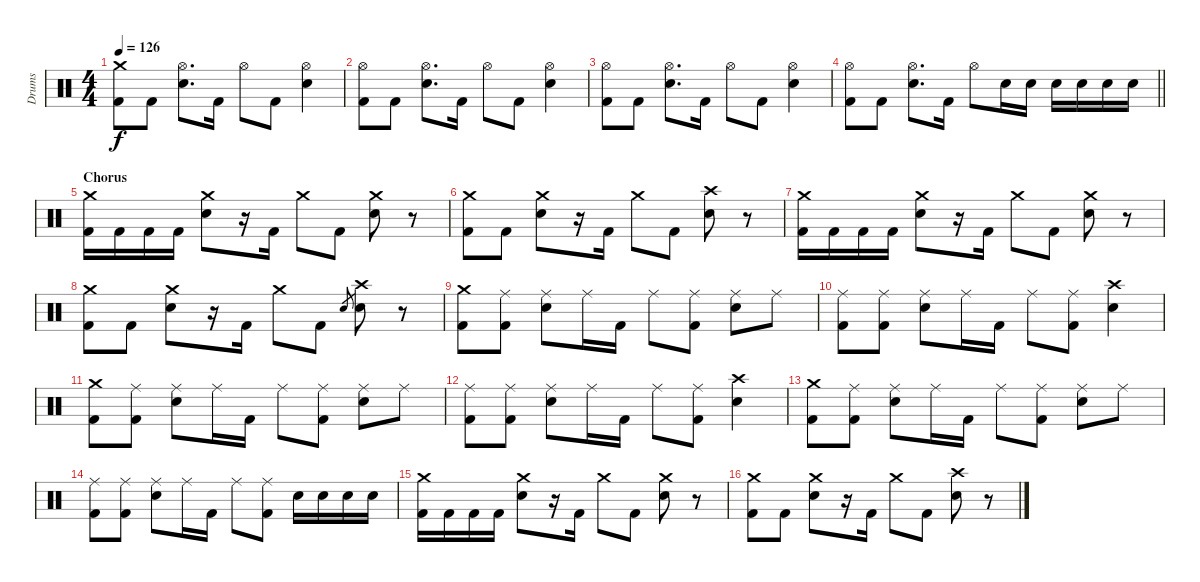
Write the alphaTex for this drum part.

\track ("Drums" "Drums") {instrument percussion}
\staff {score}
\articulation defaults
\ts (4 4)
\tempo 126
\clef neutral
\ks c
("Crash medium (hit)" "Kick (hit) 2").8{dy f} "Kick (hit) 2".8 ("Hi-Hat (open)" "Electric Snare (hit)").8{d} "Kick (hit) 2".16 "Hi-Hat (open)".8 "Kick (hit) 2".8 ("Hi-Hat (open)" "Electric Snare (hit)").4 |
("Hi-Hat (open)" "Kick (hit) 2").8 "Kick (hit) 2".8 ("Hi-Hat (open)" "Electric Snare (hit)").8{d} "Kick (hit) 2".16 "Hi-Hat (open)".8 "Kick (hit) 2".8 ("Hi-Hat (open)" "Electric Snare (hit)").4 |
("Hi-Hat (open)" "Kick (hit) 2").8 "Kick (hit) 2".8 ("Hi-Hat (open)" "Electric Snare (hit)").8{d} "Kick (hit) 2".16 "Hi-Hat (open)".8 "Kick (hit) 2".8 ("Hi-Hat (open)" "Electric Snare (hit)").4 |
\barLineRight lightlight
("Hi-Hat (open)" "Kick (hit) 2").8 "Kick (hit) 2".8 ("Hi-Hat (open)" "Electric Snare (hit)").8{d} "Kick (hit) 2".16 "Hi-Hat (open)".8 "Electric Snare (hit)".16 "Electric Snare (hit)".16 "Electric Snare (hit)".16 "Electric Snare (hit)".16 "Electric Snare (hit)".16 "Electric Snare (hit)".16 |
\section ("" "Chorus")
("Crash medium (hit)" "Kick (hit) 2").16 "Kick (hit) 2".16 "Kick (hit) 2".16 "Kick (hit) 2".16 ("Crash medium (hit)" "Electric Snare (hit)").8 r.16 "Kick (hit) 2".16 "Crash medium (hit)".8 "Kick (hit) 2".8 ("Crash medium (hit)" "Electric Snare (hit)").8 r.8 |
("Crash medium (hit)" "Kick (hit) 2").8 "Kick (hit) 2".8 ("Crash medium (hit)" "Electric Snare (hit)").8 r.16 "Kick (hit) 2".16 "Crash medium (hit)".8 "Kick (hit) 2".8 ("Crash high (hit)" "Electric Snare (hit)").8 r.8 |
("Crash medium (hit)" "Kick (hit) 2").16 "Kick (hit) 2".16 "Kick (hit) 2".16 "Kick (hit) 2".16 ("Crash medium (hit)" "Electric Snare (hit)").8 r.16 "Kick (hit) 2".16 "Crash medium (hit)".8 "Kick (hit) 2".8 ("Crash medium (hit)" "Electric Snare (hit)").8 r.8 |
("Crash medium (hit)" "Kick (hit) 2").8 "Kick (hit) 2".8 ("Crash medium (hit)" "Electric Snare (hit)").8 r.16 "Kick (hit) 2".16 "Crash medium (hit)".8 "Kick (hit) 2".8 "Electric Snare (hit)".8{gr} ("Crash high (hit)" "Electric Snare (hit)").8 r.8 |
("Crash medium (hit)" "Kick (hit) 2").8 ("Ride (middle)" "Kick (hit) 2").8 ("Ride (middle)" "Electric Snare (hit)").8 "Ride (middle)".16 "Kick (hit) 2".16 "Ride (middle)".8 ("Ride (middle)" "Kick (hit) 2").8 ("Ride (middle)" "Electric Snare (hit)").8 "Ride (middle)".8 |
("Ride (middle)" "Kick (hit) 2").8 ("Ride (middle)" "Kick (hit) 2").8 ("Ride (middle)" "Electric Snare (hit)").8 "Ride (middle)".16 "Kick (hit) 2".16 "Ride (middle)".8 ("Ride (middle)" "Kick (hit) 2").8 ("Crash high (hit)" "Electric Snare (hit)").4 |
("Crash medium (hit)" "Kick (hit) 2").8 ("Ride (middle)" "Kick (hit) 2").8 ("Ride (middle)" "Electric Snare (hit)").8 "Ride (middle)".16 "Kick (hit) 2".16 "Ride (middle)".8 ("Ride (middle)" "Kick (hit) 2").8 ("Ride (middle)" "Electric Snare (hit)").8 "Ride (middle)".8 |
("Ride (middle)" "Kick (hit) 2").8 ("Ride (middle)" "Kick (hit) 2").8 ("Ride (middle)" "Electric Snare (hit)").8 "Ride (middle)".16 "Kick (hit) 2".16 "Ride (middle)".8 ("Ride (middle)" "Kick (hit) 2").8 ("Crash high (hit)" "Electric Snare (hit)").4 |
("Crash medium (hit)" "Kick (hit) 2").8 ("Ride (middle)" "Kick (hit) 2").8 ("Ride (middle)" "Electric Snare (hit)").8 "Ride (middle)".16 "Kick (hit) 2".16 "Ride (middle)".8 ("Ride (middle)" "Kick (hit) 2").8 ("Ride (middle)" "Electric Snare (hit)").8 "Ride (middle)".8 |
("Ride (middle)" "Kick (hit) 2").8 ("Ride (middle)" "Kick (hit) 2").8 ("Ride (middle)" "Electric Snare (hit)").8 "Ride (middle)".16 "Kick (hit) 2".16 "Ride (middle)".8 ("Ride (middle)" "Kick (hit) 2").8 "Electric Snare (hit)".16 "Electric Snare (hit)".16 "Electric Snare (hit)".16 "Electric Snare (hit)".16 |
("Crash medium (hit)" "Kick (hit) 2").16 "Kick (hit) 2".16 "Kick (hit) 2".16 "Kick (hit) 2".16 ("Crash medium (hit)" "Electric Snare (hit)").8 r.16 "Kick (hit) 2".16 "Crash medium (hit)".8 "Kick (hit) 2".8 ("Crash medium (hit)" "Electric Snare (hit)").8 r.8 |
("Crash medium (hit)" "Kick (hit) 2").8 "Kick (hit) 2".8 ("Crash medium (hit)" "Electric Snare (hit)").8 r.16 "Kick (hit) 2".16 "Crash medium (hit)".8 "Kick (hit) 2".8 ("Crash high (hit)" "Electric Snare (hit)").8 r.8
